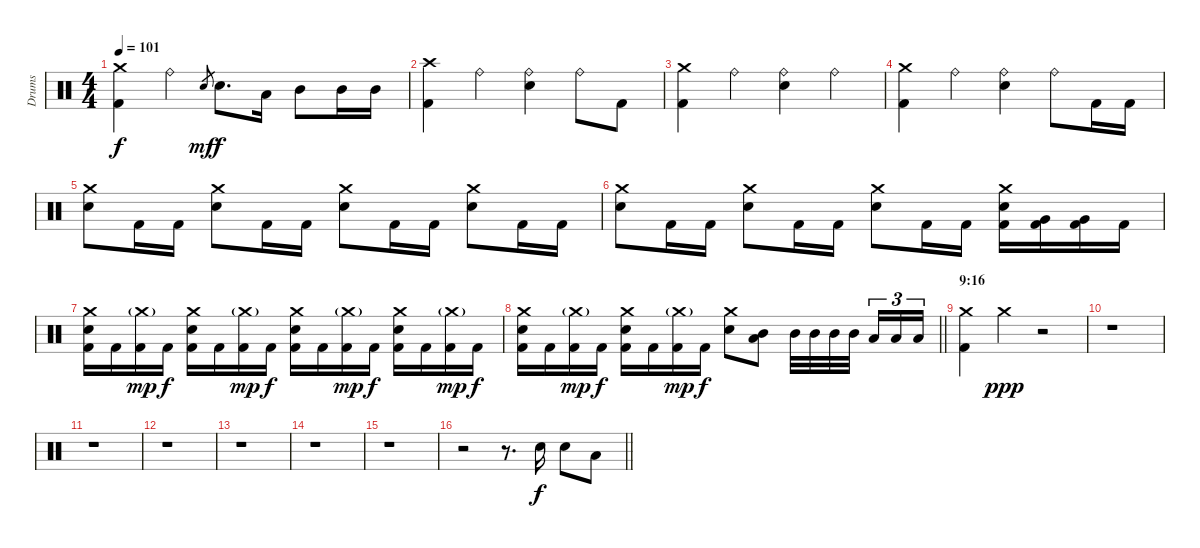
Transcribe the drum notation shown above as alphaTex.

\track ("Drums" "Drums") {instrument percussion}
\staff {score}
\articulation defaults
\ts (4 4)
\tempo 101
\clef neutral
\ks c
("Crash medium (hit)" "Kick (hit) 2").4{dy f} "Ride (bell)".4 "Snare (hit) 2".8{gr dy mf} "Snare (hit) 2".8{d dy f} "Low Tom (hit)".16 "Mid Tom (hit)".8 "Mid Tom (hit)".16 "Mid Tom (hit)".16 |
("Crash high (hit)" "Kick (hit) 2").4 "Ride (bell)".4 ("Ride (bell)" "Snare (hit) 2").4 "Ride (bell)".8 "Kick (hit) 2".8 |
("Crash medium (hit)" "Kick (hit) 2").4 "Ride (bell)".4 ("Ride (bell)" "Snare (hit) 2").4 "Ride (bell)".4 |
("Crash medium (hit)" "Kick (hit) 2").4 "Ride (bell)".4 ("Ride (bell)" "Snare (hit) 2").4 "Ride (bell)".8 "Kick (hit) 2".16 "Kick (hit) 2".16 |
("Crash medium (hit)" "Snare (hit) 2").8 "Kick (hit) 2".16 "Kick (hit) 2".16 ("Crash medium (hit)" "Snare (hit) 2").8 "Kick (hit) 2".16 "Kick (hit) 2".16 ("Crash medium (hit)" "Snare (hit) 2").8 "Kick (hit) 2".16 "Kick (hit) 2".16 ("Crash medium (hit)" "Snare (hit) 2").8 "Kick (hit) 2".16 "Kick (hit) 2".16 |
("Crash medium (hit)" "Snare (hit) 2").8 "Kick (hit) 2".16 "Kick (hit) 2".16 ("Crash medium (hit)" "Snare (hit) 2").8 "Kick (hit) 2".16 "Kick (hit) 2".16 ("Crash medium (hit)" "Snare (hit) 2").8 "Kick (hit) 2".16 "Kick (hit) 2".16 ("Crash medium (hit)" "Snare (hit) 2" "Kick (hit) 2").16 ("Very Low Tom (hit)" "Kick (hit) 2").16 ("Very Low Tom (hit)" "Kick (hit) 2").16 "Kick (hit) 2".16 |
("Crash medium (hit)" "Snare (hit) 2" "Kick (hit) 2").16 "Kick (hit) 2".16 ("Crash medium (hit)"{g} "Kick (hit) 2").16{dy mp} "Kick (hit) 2".16{dy f} ("Crash medium (hit)" "Snare (hit) 2" "Kick (hit) 2").16 "Kick (hit) 2".16 ("Crash medium (hit)"{g} "Kick (hit) 2").16{dy mp} "Kick (hit) 2".16{dy f} ("Crash medium (hit)" "Snare (hit) 2" "Kick (hit) 2").16 "Kick (hit) 2".16 ("Crash medium (hit)"{g} "Kick (hit) 2").16{dy mp} "Kick (hit) 2".16{dy f} ("Crash medium (hit)" "Snare (hit) 2" "Kick (hit) 2").16 "Kick (hit) 2".16 ("Crash medium (hit)"{g} "Kick (hit) 2").16{dy mp} "Kick (hit) 2".16{dy f} |
\barLineRight lightlight
("Crash medium (hit)" "Snare (hit) 2" "Kick (hit) 2").16 "Kick (hit) 2".16 ("Crash medium (hit)"{g} "Kick (hit) 2").16{dy mp} "Kick (hit) 2".16{dy f} ("Crash medium (hit)" "Snare (hit) 2" "Kick (hit) 2").16 "Kick (hit) 2".16 ("Crash medium (hit)"{g} "Kick (hit) 2").16{dy mp} "Kick (hit) 2".16{dy f} ("Crash medium (hit)" "Snare (hit) 2").8 ("Mid Tom (hit)" "Low Tom (hit)").8 "Mid Tom (hit)".32 "Mid Tom (hit)".32 "Mid Tom (hit)".32 "Mid Tom (hit)".32 "Low Tom (hit)".16{tu (3 2)} "Low Tom (hit)".16{tu (3 2)} "Low Tom (hit)".16{tu (3 2)} |
\section ("" "9:16")
("Crash medium (hit)" "Kick (hit) 2").4 "Crash medium (hit)".4{dy ppp} r.2 |
r.1 |
r.1 |
r.1 |
r.1 |
r.1 |
r.1 |
\barLineRight lightlight
r.2 r.8{d} "Snare (hit) 2".16{dy f} "Snare (hit) 2".8 "Low Tom (hit)".8
